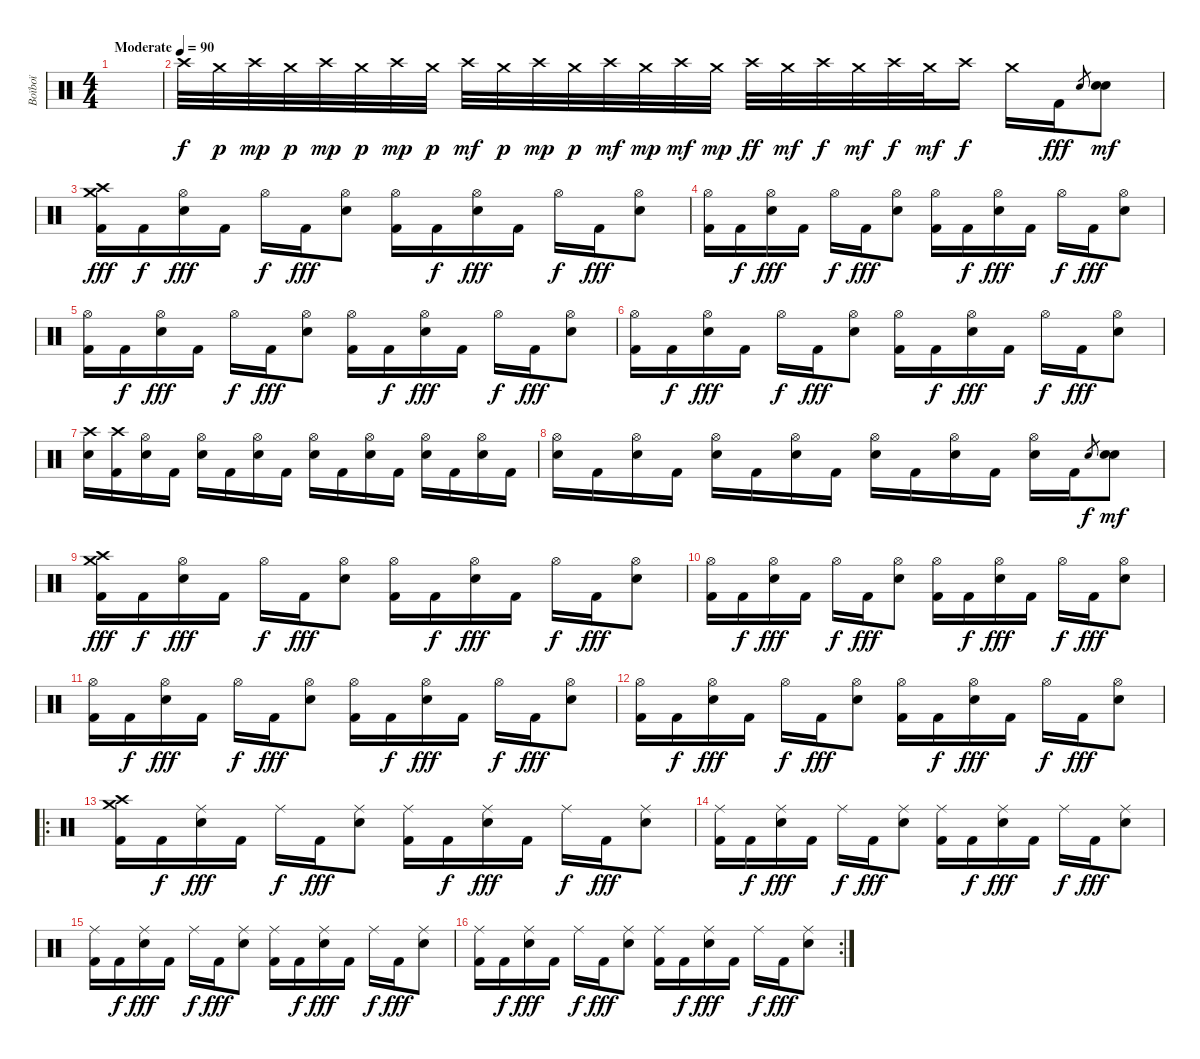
\track ("Boïboï" "Boïboï") {instrument percussion}
\staff {score}
\articulation defaults
\ts (4 4)
\tempo (90 "Moderate")
\clef neutral
\ks c
|
"Crash high (hit)".32 "Crash medium (hit)".32{dy p} "Crash high (hit)".32{dy mp} "Crash medium (hit)".32{dy p} "Crash high (hit)".32{dy mp} "Crash medium (hit)".32{dy p} "Crash high (hit)".32{dy mp} "Crash medium (hit)".32{dy p} "Crash high (hit)".32{dy mf} "Crash medium (hit)".32{dy p} "Crash high (hit)".32{dy mp} "Crash medium (hit)".32{dy p} "Crash high (hit)".32{dy mf} "Crash medium (hit)".32{dy mp} "Crash high (hit)".32{dy mf} "Crash medium (hit)".32{dy mp} "Crash high (hit)".32{dy ff} "Crash medium (hit)".32{dy mf} "Crash high (hit)".32{dy f} "Crash medium (hit)".32{dy mf} "Crash high (hit)".32{dy f} "Crash medium (hit)".32{dy mf} "Crash high (hit)".16{dy f} "Crash medium (hit)".16 "Kick (hit) 2".16{dy fff} "Electric Snare (hit)".8{gr} ("Electric Snare (hit)" "Snare (hit) 2").8{dy mf} |
("Crash medium (hit)" "Crash high (hit)" "Kick (hit) 2").16{dy fff} "Kick (hit) 2".16{dy f} ("Hi-Hat (open)" "Electric Snare (hit)").16{dy fff} "Kick (hit) 2".16 "Hi-Hat (open)".16{dy f} "Kick (hit) 2".16{dy fff} ("Hi-Hat (open)" "Electric Snare (hit)").8 ("Hi-Hat (open)" "Kick (hit) 2").16 "Kick (hit) 2".16{dy f} ("Hi-Hat (open)" "Electric Snare (hit)").16{dy fff} "Kick (hit) 2".16 "Hi-Hat (open)".16{dy f} "Kick (hit) 2".16{dy fff} ("Hi-Hat (open)" "Electric Snare (hit)").8 |
("Hi-Hat (open)" "Kick (hit) 2").16 "Kick (hit) 2".16{dy f} ("Hi-Hat (open)" "Electric Snare (hit)").16{dy fff} "Kick (hit) 2".16 "Hi-Hat (open)".16{dy f} "Kick (hit) 2".16{dy fff} ("Hi-Hat (open)" "Electric Snare (hit)").8 ("Hi-Hat (open)" "Kick (hit) 2").16 "Kick (hit) 2".16{dy f} ("Hi-Hat (open)" "Electric Snare (hit)").16{dy fff} "Kick (hit) 2".16 "Hi-Hat (open)".16{dy f} "Kick (hit) 2".16{dy fff} ("Hi-Hat (open)" "Electric Snare (hit)").8 |
("Hi-Hat (open)" "Kick (hit) 2").16 "Kick (hit) 2".16{dy f} ("Hi-Hat (open)" "Electric Snare (hit)").16{dy fff} "Kick (hit) 2".16 "Hi-Hat (open)".16{dy f} "Kick (hit) 2".16{dy fff} ("Hi-Hat (open)" "Electric Snare (hit)").8 ("Hi-Hat (open)" "Kick (hit) 2").16 "Kick (hit) 2".16{dy f} ("Hi-Hat (open)" "Electric Snare (hit)").16{dy fff} "Kick (hit) 2".16 "Hi-Hat (open)".16{dy f} "Kick (hit) 2".16{dy fff} ("Hi-Hat (open)" "Electric Snare (hit)").8 |
("Hi-Hat (open)" "Kick (hit) 2").16 "Kick (hit) 2".16{dy f} ("Hi-Hat (open)" "Electric Snare (hit)").16{dy fff} "Kick (hit) 2".16 "Hi-Hat (open)".16{dy f} "Kick (hit) 2".16{dy fff} ("Hi-Hat (open)" "Electric Snare (hit)").8 ("Hi-Hat (open)" "Kick (hit) 2").16 "Kick (hit) 2".16{dy f} ("Hi-Hat (open)" "Electric Snare (hit)").16{dy fff} "Kick (hit) 2".16 "Hi-Hat (open)".16{dy f} "Kick (hit) 2".16{dy fff} ("Hi-Hat (open)" "Electric Snare (hit)").8 |
("Crash high (hit)" "Electric Snare (hit)").16 ("Crash high (hit)" "Kick (hit) 2").16 ("Hi-Hat (open)" "Electric Snare (hit)").16 "Kick (hit) 2".16 ("Hi-Hat (open)" "Electric Snare (hit)").16 "Kick (hit) 2".16 ("Hi-Hat (open)" "Electric Snare (hit)").16 "Kick (hit) 2".16 ("Hi-Hat (open)" "Electric Snare (hit)").16 "Kick (hit) 2".16 ("Hi-Hat (open)" "Electric Snare (hit)").16 "Kick (hit) 2".16 ("Hi-Hat (open)" "Electric Snare (hit)").16 "Kick (hit) 2".16 ("Hi-Hat (open)" "Electric Snare (hit)").16 "Kick (hit) 2".16 |
("Hi-Hat (open)" "Electric Snare (hit)").16 "Kick (hit) 2".16 ("Hi-Hat (open)" "Electric Snare (hit)").16 "Kick (hit) 2".16 ("Hi-Hat (open)" "Electric Snare (hit)").16 "Kick (hit) 2".16 ("Hi-Hat (open)" "Electric Snare (hit)").16 "Kick (hit) 2".16 ("Hi-Hat (open)" "Electric Snare (hit)").16 "Kick (hit) 2".16 ("Hi-Hat (open)" "Electric Snare (hit)").16 "Kick (hit) 2".16 ("Hi-Hat (open)" "Electric Snare (hit)").16 "Kick (hit) 2".16 "Electric Snare (hit)".8{gr dy f} ("Electric Snare (hit)" "Snare (hit) 2").8{dy mf} |
("Crash medium (hit)" "Crash high (hit)" "Kick (hit) 2").16{dy fff} "Kick (hit) 2".16{dy f} ("Hi-Hat (open)" "Electric Snare (hit)").16{dy fff} "Kick (hit) 2".16 "Hi-Hat (open)".16{dy f} "Kick (hit) 2".16{dy fff} ("Hi-Hat (open)" "Electric Snare (hit)").8 ("Hi-Hat (open)" "Kick (hit) 2").16 "Kick (hit) 2".16{dy f} ("Hi-Hat (open)" "Electric Snare (hit)").16{dy fff} "Kick (hit) 2".16 "Hi-Hat (open)".16{dy f} "Kick (hit) 2".16{dy fff} ("Hi-Hat (open)" "Electric Snare (hit)").8 |
("Hi-Hat (open)" "Kick (hit) 2").16 "Kick (hit) 2".16{dy f} ("Hi-Hat (open)" "Electric Snare (hit)").16{dy fff} "Kick (hit) 2".16 "Hi-Hat (open)".16{dy f} "Kick (hit) 2".16{dy fff} ("Hi-Hat (open)" "Electric Snare (hit)").8 ("Hi-Hat (open)" "Kick (hit) 2").16 "Kick (hit) 2".16{dy f} ("Hi-Hat (open)" "Electric Snare (hit)").16{dy fff} "Kick (hit) 2".16 "Hi-Hat (open)".16{dy f} "Kick (hit) 2".16{dy fff} ("Hi-Hat (open)" "Electric Snare (hit)").8 |
("Hi-Hat (open)" "Kick (hit) 2").16 "Kick (hit) 2".16{dy f} ("Hi-Hat (open)" "Electric Snare (hit)").16{dy fff} "Kick (hit) 2".16 "Hi-Hat (open)".16{dy f} "Kick (hit) 2".16{dy fff} ("Hi-Hat (open)" "Electric Snare (hit)").8 ("Hi-Hat (open)" "Kick (hit) 2").16 "Kick (hit) 2".16{dy f} ("Hi-Hat (open)" "Electric Snare (hit)").16{dy fff} "Kick (hit) 2".16 "Hi-Hat (open)".16{dy f} "Kick (hit) 2".16{dy fff} ("Hi-Hat (open)" "Electric Snare (hit)").8 |
("Hi-Hat (open)" "Kick (hit) 2").16 "Kick (hit) 2".16{dy f} ("Hi-Hat (open)" "Electric Snare (hit)").16{dy fff} "Kick (hit) 2".16 "Hi-Hat (open)".16{dy f} "Kick (hit) 2".16{dy fff} ("Hi-Hat (open)" "Electric Snare (hit)").8 ("Hi-Hat (open)" "Kick (hit) 2").16 "Kick (hit) 2".16{dy f} ("Hi-Hat (open)" "Electric Snare (hit)").16{dy fff} "Kick (hit) 2".16 "Hi-Hat (open)".16{dy f} "Kick (hit) 2".16{dy fff} ("Hi-Hat (open)" "Electric Snare (hit)").8 |
\ro
("Crash medium (hit)" "Crash high (hit)" "Kick (hit) 2").16 "Kick (hit) 2".16{dy f} ("Ride (middle)" "Electric Snare (hit)").16{dy fff} "Kick (hit) 2".16 "Ride (middle)".16{dy f} "Kick (hit) 2".16{dy fff} ("Ride (middle)" "Electric Snare (hit)").8 ("Ride (middle)" "Kick (hit) 2").16 "Kick (hit) 2".16{dy f} ("Ride (middle)" "Electric Snare (hit)").16{dy fff} "Kick (hit) 2".16 "Ride (middle)".16{dy f} "Kick (hit) 2".16{dy fff} ("Ride (middle)" "Electric Snare (hit)").8 |
("Ride (middle)" "Kick (hit) 2").16 "Kick (hit) 2".16{dy f} ("Ride (middle)" "Electric Snare (hit)").16{dy fff} "Kick (hit) 2".16 "Ride (middle)".16{dy f} "Kick (hit) 2".16{dy fff} ("Ride (middle)" "Electric Snare (hit)").8 ("Ride (middle)" "Kick (hit) 2").16 "Kick (hit) 2".16{dy f} ("Ride (middle)" "Electric Snare (hit)").16{dy fff} "Kick (hit) 2".16 "Ride (middle)".16{dy f} "Kick (hit) 2".16{dy fff} ("Ride (middle)" "Electric Snare (hit)").8 |
("Ride (middle)" "Kick (hit) 2").16 "Kick (hit) 2".16{dy f} ("Ride (middle)" "Electric Snare (hit)").16{dy fff} "Kick (hit) 2".16 "Ride (middle)".16{dy f} "Kick (hit) 2".16{dy fff} ("Ride (middle)" "Electric Snare (hit)").8 ("Ride (middle)" "Kick (hit) 2").16 "Kick (hit) 2".16{dy f} ("Ride (middle)" "Electric Snare (hit)").16{dy fff} "Kick (hit) 2".16 "Ride (middle)".16{dy f} "Kick (hit) 2".16{dy fff} ("Ride (middle)" "Electric Snare (hit)").8 |
\rc 2
("Ride (middle)" "Kick (hit) 2").16 "Kick (hit) 2".16{dy f} ("Ride (middle)" "Electric Snare (hit)").16{dy fff} "Kick (hit) 2".16 "Ride (middle)".16{dy f} "Kick (hit) 2".16{dy fff} ("Ride (middle)" "Electric Snare (hit)").8 ("Ride (middle)" "Kick (hit) 2").16 "Kick (hit) 2".16{dy f} ("Ride (middle)" "Electric Snare (hit)").16{dy fff} "Kick (hit) 2".16 "Ride (middle)".16{dy f} "Kick (hit) 2".16{dy fff} ("Ride (middle)" "Electric Snare (hit)").8
